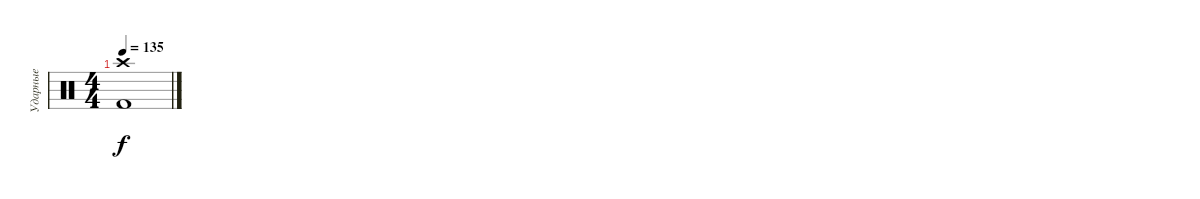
\track ("Ударные" "Ударные") {instrument percussion}
\staff {score}
\articulation defaults
\ts (4 4)
\tempo 135
\clef neutral
\ks c
("Kick (hit) 2" "Crash high (hit)").1{dy f}
